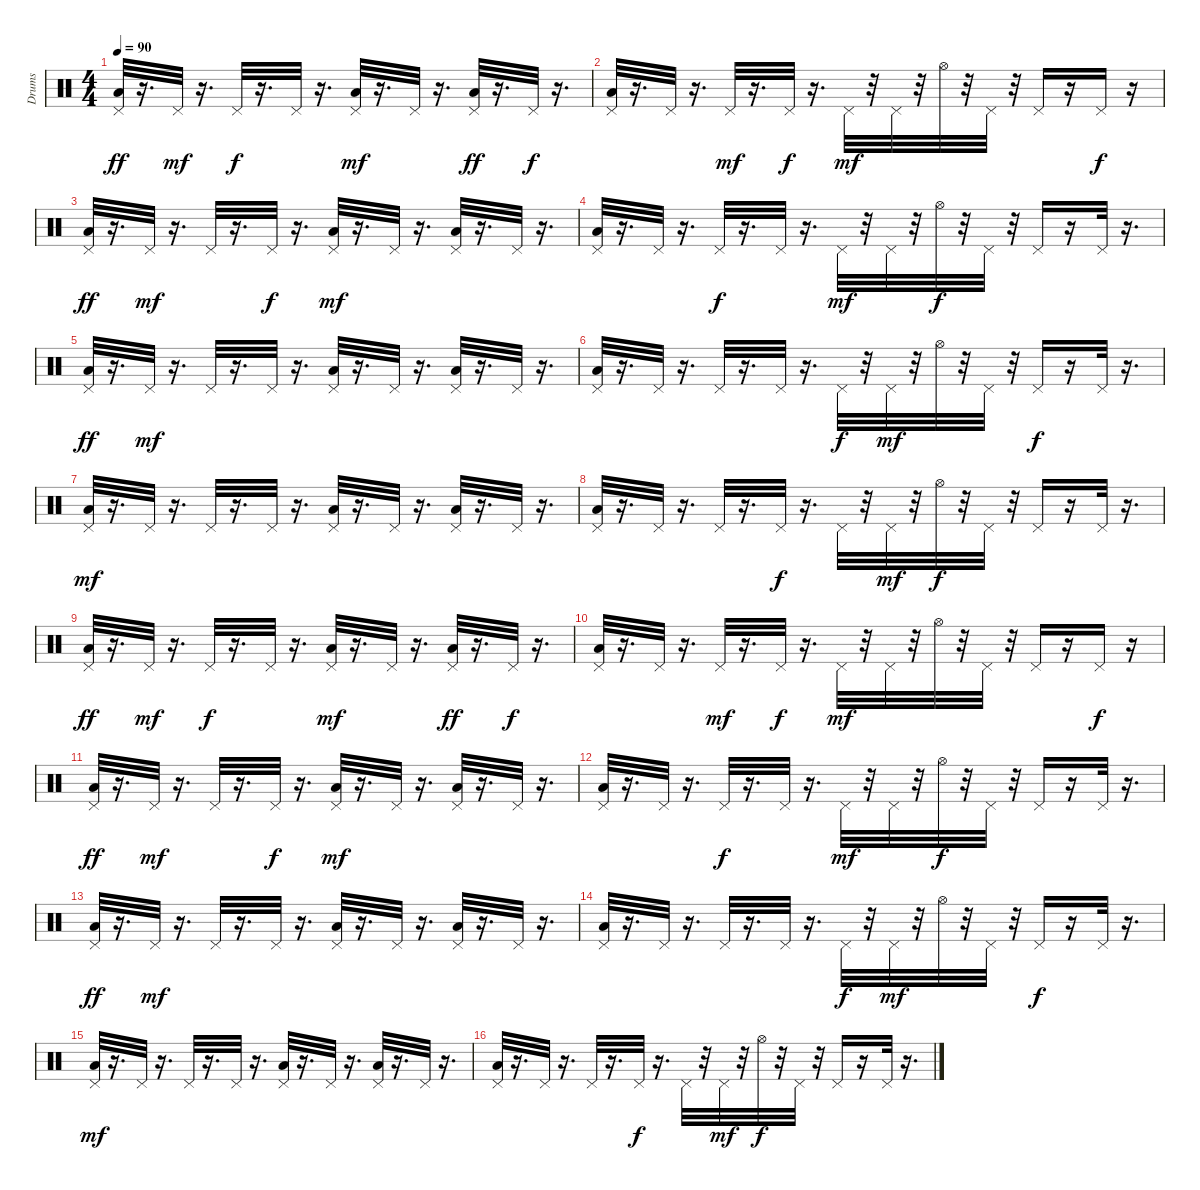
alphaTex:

\track ("Drums" "Drums") {instrument percussion}
\staff {score}
\articulation defaults
\ts (4 4)
\tempo 90
\clef neutral
\ks c
("Low Tom (hit)" "Pedal Hi-Hat (hit)").32{dy ff} r.16{d} "Pedal Hi-Hat (hit)".32{dy mf} r.16{d} "Pedal Hi-Hat (hit)".32{dy f} r.16{d} "Pedal Hi-Hat (hit)".32 r.16{d} ("Low Tom (hit)" "Pedal Hi-Hat (hit)").32{dy mf} r.16{d} "Pedal Hi-Hat (hit)".32 r.16{d} ("Low Tom (hit)" "Pedal Hi-Hat (hit)").32{dy ff} r.16{d} "Pedal Hi-Hat (hit)".32{dy f} r.16{d} |
("Low Tom (hit)" "Pedal Hi-Hat (hit)").32 r.16{d} "Pedal Hi-Hat (hit)".32 r.16{d} "Pedal Hi-Hat (hit)".32{dy mf} r.16{d} "Pedal Hi-Hat (hit)".32{dy f} r.16{d} "Pedal Hi-Hat (hit)".32{dy mf} r.32 "Pedal Hi-Hat (hit)".32 r.32 "Hi-Hat (open)".32 r.32 "Pedal Hi-Hat (hit)".32 r.32 "Pedal Hi-Hat (hit)".16 r.16 "Pedal Hi-Hat (hit)".16{dy f} r.16 |
("Low Tom (hit)" "Pedal Hi-Hat (hit)").32{dy ff} r.16{d} "Pedal Hi-Hat (hit)".32{dy mf} r.16{d} "Pedal Hi-Hat (hit)".32 r.16{d} "Pedal Hi-Hat (hit)".32{dy f} r.16{d} ("Low Tom (hit)" "Pedal Hi-Hat (hit)").32{dy mf} r.16{d} "Pedal Hi-Hat (hit)".32 r.16{d} ("Low Tom (hit)" "Pedal Hi-Hat (hit)").32 r.16{d} "Pedal Hi-Hat (hit)".32 r.16{d} |
("Low Tom (hit)" "Pedal Hi-Hat (hit)").32 r.16{d} "Pedal Hi-Hat (hit)".32 r.16{d} "Pedal Hi-Hat (hit)".32{dy f} r.16{d} "Pedal Hi-Hat (hit)".32 r.16{d} "Pedal Hi-Hat (hit)".32{dy mf} r.32 "Pedal Hi-Hat (hit)".32 r.32 "Hi-Hat (open)".32{dy f} r.32 "Pedal Hi-Hat (hit)".32 r.32 "Pedal Hi-Hat (hit)".16 r.16 "Pedal Hi-Hat (hit)".32 r.16{d} |
("Low Tom (hit)" "Pedal Hi-Hat (hit)").32{dy ff} r.16{d} "Pedal Hi-Hat (hit)".32{dy mf} r.16{d} "Pedal Hi-Hat (hit)".32 r.16{d} "Pedal Hi-Hat (hit)".32 r.16{d} ("Low Tom (hit)" "Pedal Hi-Hat (hit)").32 r.16{d} "Pedal Hi-Hat (hit)".32 r.16{d} ("Low Tom (hit)" "Pedal Hi-Hat (hit)").32 r.16{d} "Pedal Hi-Hat (hit)".32 r.16{d} |
("Low Tom (hit)" "Pedal Hi-Hat (hit)").32 r.16{d} "Pedal Hi-Hat (hit)".32 r.16{d} "Pedal Hi-Hat (hit)".32 r.16{d} "Pedal Hi-Hat (hit)".32 r.16{d} "Pedal Hi-Hat (hit)".32{dy f} r.32 "Pedal Hi-Hat (hit)".32{dy mf} r.32 "Hi-Hat (open)".32 r.32 "Pedal Hi-Hat (hit)".32 r.32 "Pedal Hi-Hat (hit)".16{dy f} r.16 "Pedal Hi-Hat (hit)".32 r.16{d} |
("Low Tom (hit)" "Pedal Hi-Hat (hit)").32{dy mf} r.16{d} "Pedal Hi-Hat (hit)".32 r.16{d} "Pedal Hi-Hat (hit)".32 r.16{d} "Pedal Hi-Hat (hit)".32 r.16{d} ("Low Tom (hit)" "Pedal Hi-Hat (hit)").32 r.16{d} "Pedal Hi-Hat (hit)".32 r.16{d} ("Low Tom (hit)" "Pedal Hi-Hat (hit)").32 r.16{d} "Pedal Hi-Hat (hit)".32 r.16{d} |
("Low Tom (hit)" "Pedal Hi-Hat (hit)").32 r.16{d} "Pedal Hi-Hat (hit)".32 r.16{d} "Pedal Hi-Hat (hit)".32 r.16{d} "Pedal Hi-Hat (hit)".32{dy f} r.16{d} "Pedal Hi-Hat (hit)".32 r.32 "Pedal Hi-Hat (hit)".32{dy mf} r.32 "Hi-Hat (open)".32{dy f} r.32 "Pedal Hi-Hat (hit)".32 r.32 "Pedal Hi-Hat (hit)".16 r.16 "Pedal Hi-Hat (hit)".32 r.16{d} |
("Low Tom (hit)" "Pedal Hi-Hat (hit)").32{dy ff} r.16{d} "Pedal Hi-Hat (hit)".32{dy mf} r.16{d} "Pedal Hi-Hat (hit)".32{dy f} r.16{d} "Pedal Hi-Hat (hit)".32 r.16{d} ("Low Tom (hit)" "Pedal Hi-Hat (hit)").32{dy mf} r.16{d} "Pedal Hi-Hat (hit)".32 r.16{d} ("Low Tom (hit)" "Pedal Hi-Hat (hit)").32{dy ff} r.16{d} "Pedal Hi-Hat (hit)".32{dy f} r.16{d} |
("Low Tom (hit)" "Pedal Hi-Hat (hit)").32 r.16{d} "Pedal Hi-Hat (hit)".32 r.16{d} "Pedal Hi-Hat (hit)".32{dy mf} r.16{d} "Pedal Hi-Hat (hit)".32{dy f} r.16{d} "Pedal Hi-Hat (hit)".32{dy mf} r.32 "Pedal Hi-Hat (hit)".32 r.32 "Hi-Hat (open)".32 r.32 "Pedal Hi-Hat (hit)".32 r.32 "Pedal Hi-Hat (hit)".16 r.16 "Pedal Hi-Hat (hit)".16{dy f} r.16 |
("Low Tom (hit)" "Pedal Hi-Hat (hit)").32{dy ff} r.16{d} "Pedal Hi-Hat (hit)".32{dy mf} r.16{d} "Pedal Hi-Hat (hit)".32 r.16{d} "Pedal Hi-Hat (hit)".32{dy f} r.16{d} ("Low Tom (hit)" "Pedal Hi-Hat (hit)").32{dy mf} r.16{d} "Pedal Hi-Hat (hit)".32 r.16{d} ("Low Tom (hit)" "Pedal Hi-Hat (hit)").32 r.16{d} "Pedal Hi-Hat (hit)".32 r.16{d} |
("Low Tom (hit)" "Pedal Hi-Hat (hit)").32 r.16{d} "Pedal Hi-Hat (hit)".32 r.16{d} "Pedal Hi-Hat (hit)".32{dy f} r.16{d} "Pedal Hi-Hat (hit)".32 r.16{d} "Pedal Hi-Hat (hit)".32{dy mf} r.32 "Pedal Hi-Hat (hit)".32 r.32 "Hi-Hat (open)".32{dy f} r.32 "Pedal Hi-Hat (hit)".32 r.32 "Pedal Hi-Hat (hit)".16 r.16 "Pedal Hi-Hat (hit)".32 r.16{d} |
("Low Tom (hit)" "Pedal Hi-Hat (hit)").32{dy ff} r.16{d} "Pedal Hi-Hat (hit)".32{dy mf} r.16{d} "Pedal Hi-Hat (hit)".32 r.16{d} "Pedal Hi-Hat (hit)".32 r.16{d} ("Low Tom (hit)" "Pedal Hi-Hat (hit)").32 r.16{d} "Pedal Hi-Hat (hit)".32 r.16{d} ("Low Tom (hit)" "Pedal Hi-Hat (hit)").32 r.16{d} "Pedal Hi-Hat (hit)".32 r.16{d} |
("Low Tom (hit)" "Pedal Hi-Hat (hit)").32 r.16{d} "Pedal Hi-Hat (hit)".32 r.16{d} "Pedal Hi-Hat (hit)".32 r.16{d} "Pedal Hi-Hat (hit)".32 r.16{d} "Pedal Hi-Hat (hit)".32{dy f} r.32 "Pedal Hi-Hat (hit)".32{dy mf} r.32 "Hi-Hat (open)".32 r.32 "Pedal Hi-Hat (hit)".32 r.32 "Pedal Hi-Hat (hit)".16{dy f} r.16 "Pedal Hi-Hat (hit)".32 r.16{d} |
("Low Tom (hit)" "Pedal Hi-Hat (hit)").32{dy mf} r.16{d} "Pedal Hi-Hat (hit)".32 r.16{d} "Pedal Hi-Hat (hit)".32 r.16{d} "Pedal Hi-Hat (hit)".32 r.16{d} ("Low Tom (hit)" "Pedal Hi-Hat (hit)").32 r.16{d} "Pedal Hi-Hat (hit)".32 r.16{d} ("Low Tom (hit)" "Pedal Hi-Hat (hit)").32 r.16{d} "Pedal Hi-Hat (hit)".32 r.16{d} |
("Low Tom (hit)" "Pedal Hi-Hat (hit)").32 r.16{d} "Pedal Hi-Hat (hit)".32 r.16{d} "Pedal Hi-Hat (hit)".32 r.16{d} "Pedal Hi-Hat (hit)".32{dy f} r.16{d} "Pedal Hi-Hat (hit)".32 r.32 "Pedal Hi-Hat (hit)".32{dy mf} r.32 "Hi-Hat (open)".32{dy f} r.32 "Pedal Hi-Hat (hit)".32 r.32 "Pedal Hi-Hat (hit)".16 r.16 "Pedal Hi-Hat (hit)".32 r.16{d}
